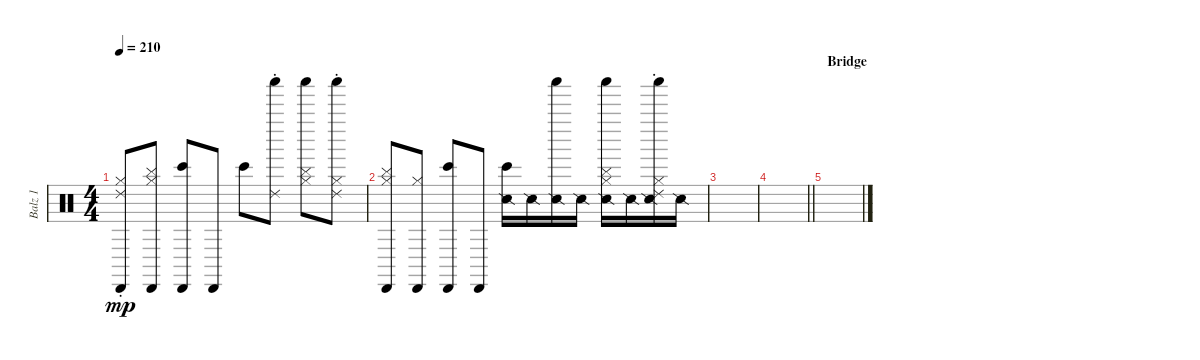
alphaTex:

\track ("Balz 1" "Balz 1") {instrument percussion}
\staff {score}
\articulation defaults
\ts (4 4)
\tempo 210
\clef neutral
\ks c
("Ride (choke) 2" "Hi-Hat (closed)" "Cabasa (hit)").8{dy mp} ("Cymbal (hit)" "Hi-Hat (closed)" "Cabasa (hit)").8 ("Bongo High (hit)" "Cabasa (hit)").8 "Cabasa (hit)".8 "Bongo High (hit)".8 ("Ride (choke) 2" "Shaker (hit)").8 ("Cymbal (hit)" "Shaker (hit)" "Hi-Hat (closed)").8 ("Ride (choke) 2" "Shaker (hit)" "Hi-Hat (closed)").8 |
("Cymbal (hit)" "Hi-Hat (closed)" "Cabasa (hit)").8 ("Hi-Hat (closed)" "Cabasa (hit)").8 ("Bongo High (hit)" "Cabasa (hit)").8 "Cabasa (hit)".8 ("Bongo High (hit)" "Snare (side stick) 2").16 "Snare (side stick) 2".16 ("Shaker (hit)" "Snare (side stick) 2").16 "Snare (side stick) 2".16 ("Cymbal (hit)" "Shaker (hit)" "Hi-Hat (closed)" "Snare (side stick) 2").16 "Snare (side stick) 2".16 ("Ride (choke) 2" "Shaker (hit)" "Hi-Hat (closed)" "Snare (side stick) 2").16 "Snare (side stick) 2".16 |
|
\barLineRight lightlight
|
\section ("" "Bridge")
